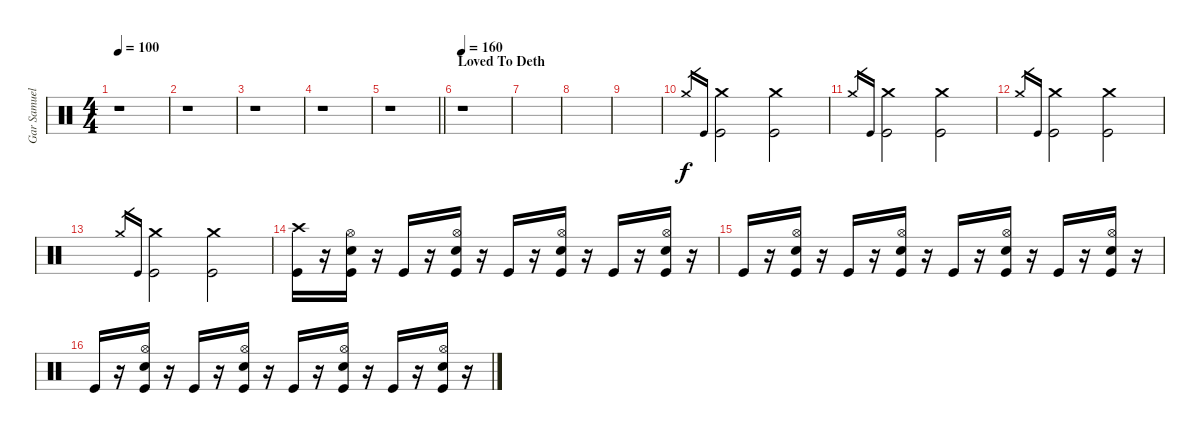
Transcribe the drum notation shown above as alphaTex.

\track ("Gar Samuelson" "Gar Samuel") {instrument percussion}
\staff {score}
\articulation defaults
\ts (4 4)
\tempo 100
\clef neutral
\ks c
r.1{dy f} |
r.1 |
r.1 |
r.1 |
\barLineRight lightlight
r.1 |
\section ("" "Loved To Deth")
\tempo 160
r.1 |
|
|
|
"Crash medium (hit)".16{gr} "Kick (hit)".16{gr} ("Crash medium (hit)" "Kick (hit)").2 ("Crash medium (hit)" "Kick (hit)").2 |
"Crash medium (hit)".16{gr} "Kick (hit)".16{gr} ("Crash medium (hit)" "Kick (hit)").2 ("Crash medium (hit)" "Kick (hit)").2 |
"Crash medium (hit)".16{gr} "Kick (hit)".16{gr} ("Crash medium (hit)" "Kick (hit)").2 ("Crash medium (hit)" "Kick (hit)").2 |
"Crash medium (hit)".16{gr} "Kick (hit)".16{gr} ("Crash medium (hit)" "Kick (hit)").2 ("Crash medium (hit)" "Kick (hit)").2 |
("Crash high (hit)" "Kick (hit)").16 r.16 ("Hi-Hat (open)" "Snare (hit) 2" "Kick (hit)").16 r.16 "Kick (hit)".16 r.16 ("Hi-Hat (open)" "Snare (hit) 2" "Kick (hit)").16 r.16 "Kick (hit)".16 r.16 ("Hi-Hat (open)" "Snare (hit) 2" "Kick (hit)").16 r.16 "Kick (hit)".16 r.16 ("Hi-Hat (open)" "Snare (hit) 2" "Kick (hit)").16 r.16 |
"Kick (hit)".16 r.16 ("Hi-Hat (open)" "Snare (hit) 2" "Kick (hit)").16 r.16 "Kick (hit)".16 r.16 ("Hi-Hat (open)" "Snare (hit) 2" "Kick (hit)").16 r.16 "Kick (hit)".16 r.16 ("Hi-Hat (open)" "Snare (hit) 2" "Kick (hit)").16 r.16 "Kick (hit)".16 r.16 ("Hi-Hat (open)" "Snare (hit) 2" "Kick (hit)").16 r.16 |
"Kick (hit)".16 r.16 ("Hi-Hat (open)" "Snare (hit) 2" "Kick (hit)").16 r.16 "Kick (hit)".16 r.16 ("Hi-Hat (open)" "Snare (hit) 2" "Kick (hit)").16 r.16 "Kick (hit)".16 r.16 ("Hi-Hat (open)" "Snare (hit) 2" "Kick (hit)").16 r.16 "Kick (hit)".16 r.16 ("Hi-Hat (open)" "Snare (hit) 2" "Kick (hit)").16 r.16
